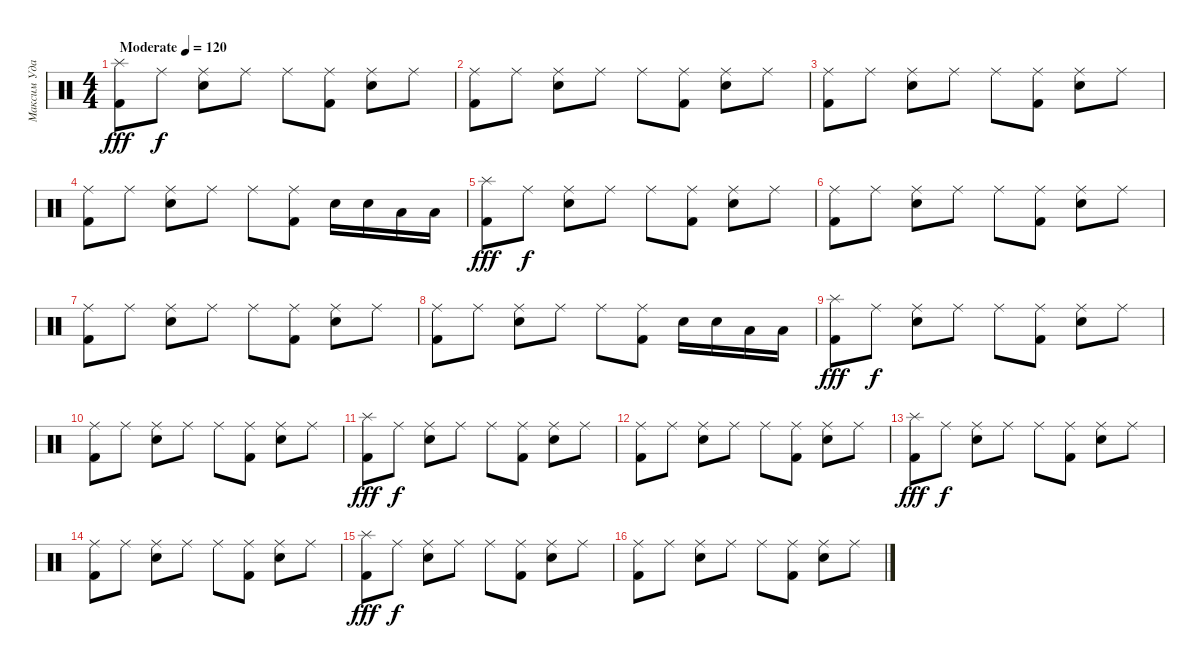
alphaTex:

\track ("Максим Удалов" "Максим Уда") {instrument percussion}
\staff {score}
\articulation defaults
\ts (4 4)
\tempo (120 "Moderate")
\clef neutral
\ks c
("Kick (hit) 2" "Splash (hit)").8{dy fff} "Ride (middle)".8{dy f} ("Ride (middle)" "Electric Snare (hit)").8 "Ride (middle)".8 "Ride (middle)".8 ("Ride (middle)" "Kick (hit) 2").8 ("Ride (middle)" "Electric Snare (hit)").8 "Ride (middle)".8 |
("Ride (middle)" "Kick (hit) 2").8 "Ride (middle)".8 ("Ride (middle)" "Electric Snare (hit)").8 "Ride (middle)".8 "Ride (middle)".8 ("Ride (middle)" "Kick (hit) 2").8 ("Ride (middle)" "Electric Snare (hit)").8 "Ride (middle)".8 |
("Ride (middle)" "Kick (hit) 2").8 "Ride (middle)".8 ("Ride (middle)" "Electric Snare (hit)").8 "Ride (middle)".8 "Ride (middle)".8 ("Ride (middle)" "Kick (hit) 2").8 ("Ride (middle)" "Electric Snare (hit)").8 "Ride (middle)".8 |
("Ride (middle)" "Kick (hit) 2").8 "Ride (middle)".8 ("Ride (middle)" "Electric Snare (hit)").8 "Ride (middle)".8 "Ride (middle)".8 ("Ride (middle)" "Kick (hit) 2").8 "Electric Snare (hit)".16 "Electric Snare (hit)".16 "Low Tom (hit)".16 "Low Tom (hit)".16 |
("Kick (hit) 2" "Splash (hit)").8{dy fff} "Ride (middle)".8{dy f} ("Ride (middle)" "Electric Snare (hit)").8 "Ride (middle)".8 "Ride (middle)".8 ("Ride (middle)" "Kick (hit) 2").8 ("Ride (middle)" "Electric Snare (hit)").8 "Ride (middle)".8 |
("Ride (middle)" "Kick (hit) 2").8 "Ride (middle)".8 ("Ride (middle)" "Electric Snare (hit)").8 "Ride (middle)".8 "Ride (middle)".8 ("Ride (middle)" "Kick (hit) 2").8 ("Ride (middle)" "Electric Snare (hit)").8 "Ride (middle)".8 |
("Ride (middle)" "Kick (hit) 2").8 "Ride (middle)".8 ("Ride (middle)" "Electric Snare (hit)").8 "Ride (middle)".8 "Ride (middle)".8 ("Ride (middle)" "Kick (hit) 2").8 ("Ride (middle)" "Electric Snare (hit)").8 "Ride (middle)".8 |
("Ride (middle)" "Kick (hit) 2").8 "Ride (middle)".8 ("Ride (middle)" "Electric Snare (hit)").8 "Ride (middle)".8 "Ride (middle)".8 ("Ride (middle)" "Kick (hit) 2").8 "Electric Snare (hit)".16 "Electric Snare (hit)".16 "Low Tom (hit)".16 "Low Tom (hit)".16 |
("Kick (hit) 2" "Splash (hit)").8{dy fff} "Ride (middle)".8{dy f} ("Ride (middle)" "Electric Snare (hit)").8 "Ride (middle)".8 "Ride (middle)".8 ("Ride (middle)" "Kick (hit) 2").8 ("Ride (middle)" "Electric Snare (hit)").8 "Ride (middle)".8 |
("Ride (middle)" "Kick (hit) 2").8 "Ride (middle)".8 ("Ride (middle)" "Electric Snare (hit)").8 "Ride (middle)".8 "Ride (middle)".8 ("Ride (middle)" "Kick (hit) 2").8 ("Ride (middle)" "Electric Snare (hit)").8 "Ride (middle)".8 |
("Kick (hit) 2" "Splash (hit)").8{dy fff} "Ride (middle)".8{dy f} ("Ride (middle)" "Electric Snare (hit)").8 "Ride (middle)".8 "Ride (middle)".8 ("Ride (middle)" "Kick (hit) 2").8 ("Ride (middle)" "Electric Snare (hit)").8 "Ride (middle)".8 |
("Ride (middle)" "Kick (hit) 2").8 "Ride (middle)".8 ("Ride (middle)" "Electric Snare (hit)").8 "Ride (middle)".8 "Ride (middle)".8 ("Ride (middle)" "Kick (hit) 2").8 ("Ride (middle)" "Electric Snare (hit)").8 "Ride (middle)".8 |
("Kick (hit) 2" "Splash (hit)").8{dy fff} "Ride (middle)".8{dy f} ("Ride (middle)" "Electric Snare (hit)").8 "Ride (middle)".8 "Ride (middle)".8 ("Ride (middle)" "Kick (hit) 2").8 ("Ride (middle)" "Electric Snare (hit)").8 "Ride (middle)".8 |
("Ride (middle)" "Kick (hit) 2").8 "Ride (middle)".8 ("Ride (middle)" "Electric Snare (hit)").8 "Ride (middle)".8 "Ride (middle)".8 ("Ride (middle)" "Kick (hit) 2").8 ("Ride (middle)" "Electric Snare (hit)").8 "Ride (middle)".8 |
("Kick (hit) 2" "Splash (hit)").8{dy fff} "Ride (middle)".8{dy f} ("Ride (middle)" "Electric Snare (hit)").8 "Ride (middle)".8 "Ride (middle)".8 ("Ride (middle)" "Kick (hit) 2").8 ("Ride (middle)" "Electric Snare (hit)").8 "Ride (middle)".8 |
("Ride (middle)" "Kick (hit) 2").8 "Ride (middle)".8 ("Ride (middle)" "Electric Snare (hit)").8 "Ride (middle)".8 "Ride (middle)".8 ("Ride (middle)" "Kick (hit) 2").8 ("Ride (middle)" "Electric Snare (hit)").8 "Ride (middle)".8
